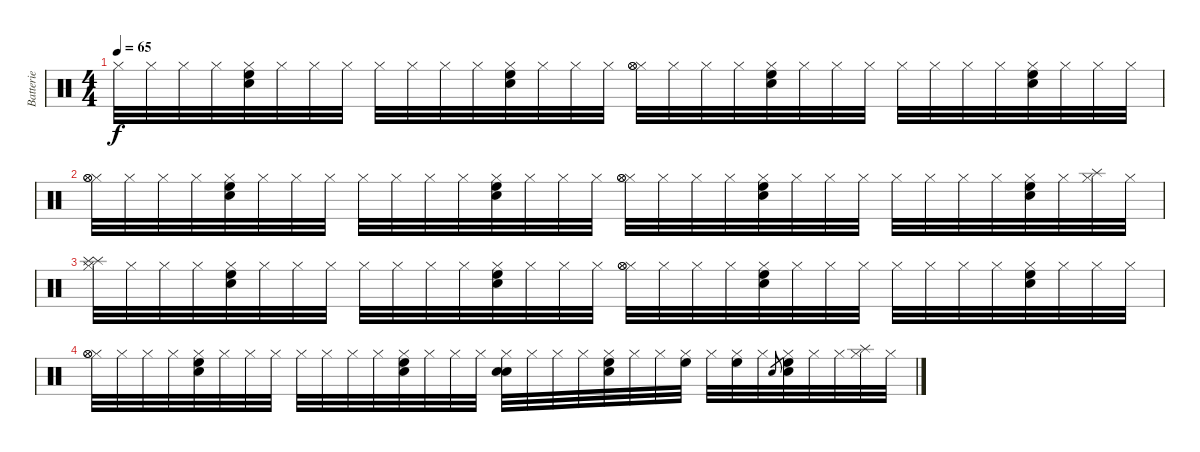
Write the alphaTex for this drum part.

\track ("Batterie" "Batterie") {instrument percussion}
\staff {score}
\articulation defaults
\ts (4 4)
\tempo 65
\clef neutral
\ks c "Hi-Hat (closed)".32{dy f volume 7} "Hi-Hat (closed)".32 "Hi-Hat (closed)".32 "Hi-Hat (closed)".32
("Hi-Hat (closed)" "Snare (hit) 2" "High Floor Tom (hit)").32 "Hi-Hat (closed)".32 "Hi-Hat (closed)".32 "Hi-Hat (closed)".32 "Hi-Hat (closed)".32 "Hi-Hat (closed)".32 "Hi-Hat (closed)".32 "Hi-Hat (closed)".32 ("Hi-Hat (closed)" "Snare (hit) 2" "High Floor Tom (hit)").32 "Hi-Hat (closed)".32 "Hi-Hat (closed)".32 "Hi-Hat (closed)".32 ("Hi-Hat (closed)" "Hi-Hat (open)" "Hi-Hat (open)").32 "Hi-Hat (closed)".32 "Hi-Hat (closed)".32 "Hi-Hat (closed)".32 ("Hi-Hat (closed)" "Snare (hit) 2" "High Floor Tom (hit)").32 "Hi-Hat (closed)".32 "Hi-Hat (closed)".32 "Hi-Hat (closed)".32 "Hi-Hat (closed)".32 "Hi-Hat (closed)".32 "Hi-Hat (closed)".32 "Hi-Hat (closed)".32 ("Hi-Hat (closed)" "Snare (hit) 2" "High Floor Tom (hit)").32 "Hi-Hat (closed)".32 "Hi-Hat (closed)".32 "Hi-Hat (closed)".32 |
("Hi-Hat (closed)" "Hi-Hat (open)" "Hi-Hat (open)").32{volume 4} "Hi-Hat (closed)".32 "Hi-Hat (closed)".32 "Hi-Hat (closed)".32 ("Hi-Hat (closed)" "Snare (hit) 2" "High Floor Tom (hit)").32 "Hi-Hat (closed)".32 "Hi-Hat (closed)".32 "Hi-Hat (closed)".32 "Hi-Hat (closed)".32 "Hi-Hat (closed)".32 "Hi-Hat (closed)".32 "Hi-Hat (closed)".32 ("Hi-Hat (closed)" "Snare (hit) 2" "High Floor Tom (hit)").32 "Hi-Hat (closed)".32 "Hi-Hat (closed)".32 "Hi-Hat (closed)".32 ("Hi-Hat (closed)" "Hi-Hat (open)" "Hi-Hat (open)").32 "Hi-Hat (closed)".32 "Hi-Hat (closed)".32 "Hi-Hat (closed)".32 ("Hi-Hat (closed)" "Snare (hit) 2" "High Floor Tom (hit)").32 "Hi-Hat (closed)".32 "Hi-Hat (closed)".32 "Hi-Hat (closed)".32 "Hi-Hat (closed)".32 "Hi-Hat (closed)".32 "Hi-Hat (closed)".32 "Hi-Hat (closed)".32 ("Hi-Hat (closed)" "Snare (hit) 2" "High Floor Tom (hit)").32 "Hi-Hat (closed)".32 ("Hi-Hat (closed)" "Splash (hit)").32 "Hi-Hat (closed)".32 |
("Hi-Hat (closed)" "Splash (hit)" "Splash (hit)").32{volume 2} "Hi-Hat (closed)".32 "Hi-Hat (closed)".32 "Hi-Hat (closed)".32 ("Hi-Hat (closed)" "Snare (hit) 2" "High Floor Tom (hit)").32 "Hi-Hat (closed)".32 "Hi-Hat (closed)".32 "Hi-Hat (closed)".32 "Hi-Hat (closed)".32 "Hi-Hat (closed)".32 "Hi-Hat (closed)".32 "Hi-Hat (closed)".32 ("Hi-Hat (closed)" "Snare (hit) 2" "High Floor Tom (hit)").32 "Hi-Hat (closed)".32 "Hi-Hat (closed)".32 "Hi-Hat (closed)".32 ("Hi-Hat (closed)" "Hi-Hat (open)" "Hi-Hat (open)").32 "Hi-Hat (closed)".32 "Hi-Hat (closed)".32 "Hi-Hat (closed)".32 ("Hi-Hat (closed)" "Snare (hit) 2" "High Floor Tom (hit)").32 "Hi-Hat (closed)".32 "Hi-Hat (closed)".32 "Hi-Hat (closed)".32 "Hi-Hat (closed)".32 "Hi-Hat (closed)".32 "Hi-Hat (closed)".32 "Hi-Hat (closed)".32 ("Hi-Hat (closed)" "Snare (hit) 2" "High Floor Tom (hit)").32 "Hi-Hat (closed)".32 "Hi-Hat (closed)".32 "Hi-Hat (closed)".32 |
("Hi-Hat (closed)" "Hi-Hat (open)" "Hi-Hat (open)").32{volume 0} "Hi-Hat (closed)".32 "Hi-Hat (closed)".32 "Hi-Hat (closed)".32 ("Hi-Hat (closed)" "Snare (hit) 2" "High Floor Tom (hit)").32 "Hi-Hat (closed)".32 "Hi-Hat (closed)".32 "Hi-Hat (closed)".32 "Hi-Hat (closed)".32 "Hi-Hat (closed)".32 "Hi-Hat (closed)".32 "Hi-Hat (closed)".32 ("Hi-Hat (closed)" "Snare (hit) 2" "High Floor Tom (hit)").32 "Hi-Hat (closed)".32 "Hi-Hat (closed)".32 "Hi-Hat (closed)".32 ("Hi-Hat (closed)" "Snare (hit) 2" "Snare (hit) 2").32 "Hi-Hat (closed)".32 "Hi-Hat (closed)".32 "Hi-Hat (closed)".32 ("Hi-Hat (closed)" "Snare (hit) 2" "High Floor Tom (hit)").32 "Hi-Hat (closed)".32 "Hi-Hat (closed)".32 ("Hi-Hat (closed)" "High Floor Tom (hit)").32 "Hi-Hat (closed)".32 ("Hi-Hat (closed)" "High Floor Tom (hit)").32 "Hi-Hat (closed)".32 "Snare (hit) 2".8{gr} ("Hi-Hat (closed)" "Snare (hit) 2" "High Floor Tom (hit)").32 "Hi-Hat (closed)".32 "Hi-Hat (closed)".32 ("Hi-Hat (closed)" "Splash (hit)").32 "Hi-Hat (closed)".32
